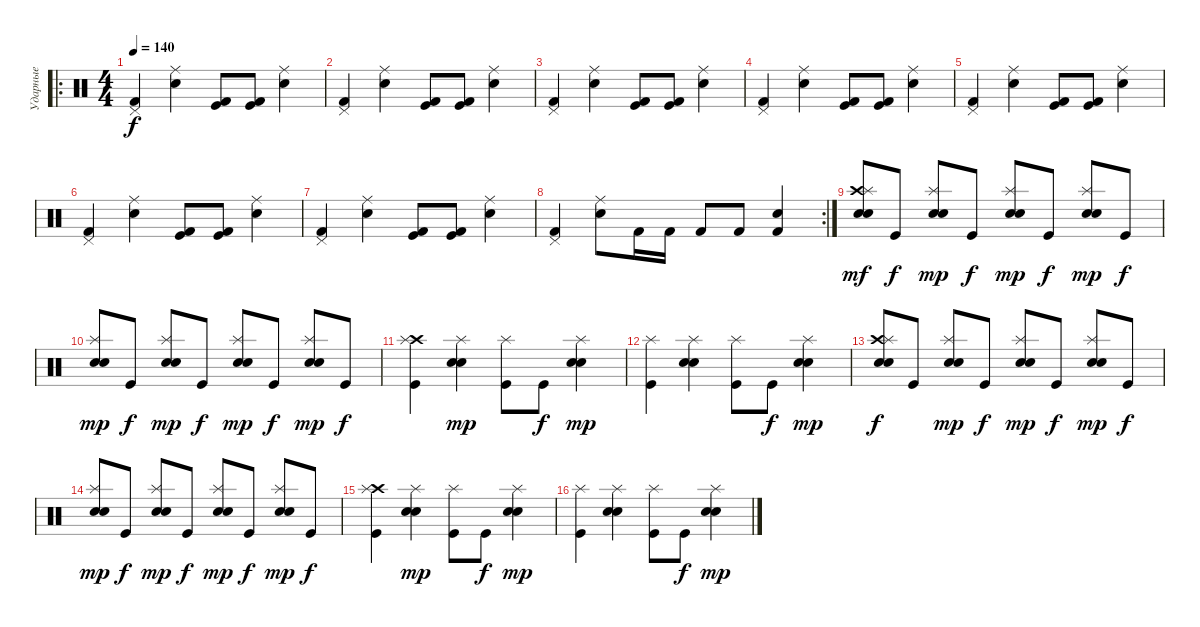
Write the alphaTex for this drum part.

\track ("Ударные" "Ударные") {instrument percussion}
\staff {score}
\articulation defaults
\ro
\ts (4 4)
\tempo 140
\clef neutral
\ks c
("Pedal Hi-Hat (hit)" "Kick (hit) 2").4{dy f} ("Snare (hit) 2" "Ride (middle)").4 ("Kick (hit)" "Kick (hit) 2").8 ("Kick (hit)" "Kick (hit) 2").8 ("Snare (hit) 2" "Ride (middle)").4 |
("Pedal Hi-Hat (hit)" "Kick (hit) 2").4 ("Snare (hit) 2" "Ride (middle)").4 ("Kick (hit)" "Kick (hit) 2").8 ("Kick (hit)" "Kick (hit) 2").8 ("Snare (hit) 2" "Ride (middle)").4 |
("Pedal Hi-Hat (hit)" "Kick (hit) 2").4 ("Snare (hit) 2" "Ride (middle)").4 ("Kick (hit)" "Kick (hit) 2").8 ("Kick (hit)" "Kick (hit) 2").8 ("Snare (hit) 2" "Ride (middle)").4 |
("Pedal Hi-Hat (hit)" "Kick (hit) 2").4 ("Snare (hit) 2" "Ride (middle)").4 ("Kick (hit)" "Kick (hit) 2").8 ("Kick (hit)" "Kick (hit) 2").8 ("Snare (hit) 2" "Ride (middle)").4 |
("Pedal Hi-Hat (hit)" "Kick (hit) 2").4 ("Snare (hit) 2" "Ride (middle)").4 ("Kick (hit)" "Kick (hit) 2").8 ("Kick (hit)" "Kick (hit) 2").8 ("Snare (hit) 2" "Ride (middle)").4 |
("Pedal Hi-Hat (hit)" "Kick (hit) 2").4 ("Snare (hit) 2" "Ride (middle)").4 ("Kick (hit)" "Kick (hit) 2").8 ("Kick (hit)" "Kick (hit) 2").8 ("Snare (hit) 2" "Ride (middle)").4 |
("Pedal Hi-Hat (hit)" "Kick (hit) 2").4 ("Snare (hit) 2" "Ride (middle)").4 ("Kick (hit)" "Kick (hit) 2").8 ("Kick (hit)" "Kick (hit) 2").8 ("Snare (hit) 2" "Ride (middle)").4 |
\rc 2
("Pedal Hi-Hat (hit)" "Kick (hit) 2").4 ("Snare (hit) 2" "Ride (middle)").8 "Kick (hit) 2".16 "Kick (hit) 2".16 "Kick (hit) 2".8 "Kick (hit) 2".8 ("Snare (hit) 2" "Kick (hit) 2").4 |
("Crash high (hit)" "Splash (hit)" "Electric Snare (hit)" "Snare (hit) 2").8{dy mf} "Kick (hit)".8{dy f} ("Splash (hit)" "Electric Snare (hit)" "Snare (hit) 2").8{dy mp} "Kick (hit)".8{dy f} ("Splash (hit)" "Electric Snare (hit)" "Snare (hit) 2").8{dy mp} "Kick (hit)".8{dy f} ("Splash (hit)" "Electric Snare (hit)" "Snare (hit) 2").8{dy mp} "Kick (hit)".8{dy f} |
("Splash (hit)" "Electric Snare (hit)" "Snare (hit) 2").8{dy mp} "Kick (hit)".8{dy f} ("Splash (hit)" "Electric Snare (hit)" "Snare (hit) 2").8{dy mp} "Kick (hit)".8{dy f} ("Splash (hit)" "Electric Snare (hit)" "Snare (hit) 2").8{dy mp} "Kick (hit)".8{dy f} ("Splash (hit)" "Electric Snare (hit)" "Snare (hit) 2").8{dy mp} "Kick (hit)".8{dy f} |
("Crash high (hit)" "Splash (hit)" "Kick (hit)").4 ("Splash (hit)" "Electric Snare (hit)" "Snare (hit) 2").4{dy mp} ("Splash (hit)" "Kick (hit)").8 "Kick (hit)".8{dy f} ("Splash (hit)" "Electric Snare (hit)" "Snare (hit) 2").4{dy mp} |
("Splash (hit)" "Kick (hit)").4 ("Splash (hit)" "Electric Snare (hit)" "Snare (hit) 2").4 ("Splash (hit)" "Kick (hit)").8 "Kick (hit)".8{dy f} ("Splash (hit)" "Electric Snare (hit)" "Snare (hit) 2").4{dy mp} |
("Crash high (hit)" "Splash (hit)" "Electric Snare (hit)" "Snare (hit) 2").8{dy f} "Kick (hit)".8 ("Splash (hit)" "Electric Snare (hit)" "Snare (hit) 2").8{dy mp} "Kick (hit)".8{dy f} ("Splash (hit)" "Electric Snare (hit)" "Snare (hit) 2").8{dy mp} "Kick (hit)".8{dy f} ("Splash (hit)" "Electric Snare (hit)" "Snare (hit) 2").8{dy mp} "Kick (hit)".8{dy f} |
("Splash (hit)" "Electric Snare (hit)" "Snare (hit) 2").8{dy mp} "Kick (hit)".8{dy f} ("Splash (hit)" "Electric Snare (hit)" "Snare (hit) 2").8{dy mp} "Kick (hit)".8{dy f} ("Splash (hit)" "Electric Snare (hit)" "Snare (hit) 2").8{dy mp} "Kick (hit)".8{dy f} ("Splash (hit)" "Electric Snare (hit)" "Snare (hit) 2").8{dy mp} "Kick (hit)".8{dy f} |
("Crash high (hit)" "Splash (hit)" "Kick (hit)").4 ("Splash (hit)" "Electric Snare (hit)" "Snare (hit) 2").4{dy mp} ("Splash (hit)" "Kick (hit)").8 "Kick (hit)".8{dy f} ("Splash (hit)" "Electric Snare (hit)" "Snare (hit) 2").4{dy mp} |
("Splash (hit)" "Kick (hit)").4 ("Splash (hit)" "Electric Snare (hit)" "Snare (hit) 2").4 ("Splash (hit)" "Kick (hit)").8 "Kick (hit)".8{dy f} ("Splash (hit)" "Electric Snare (hit)" "Snare (hit) 2").4{dy mp}
